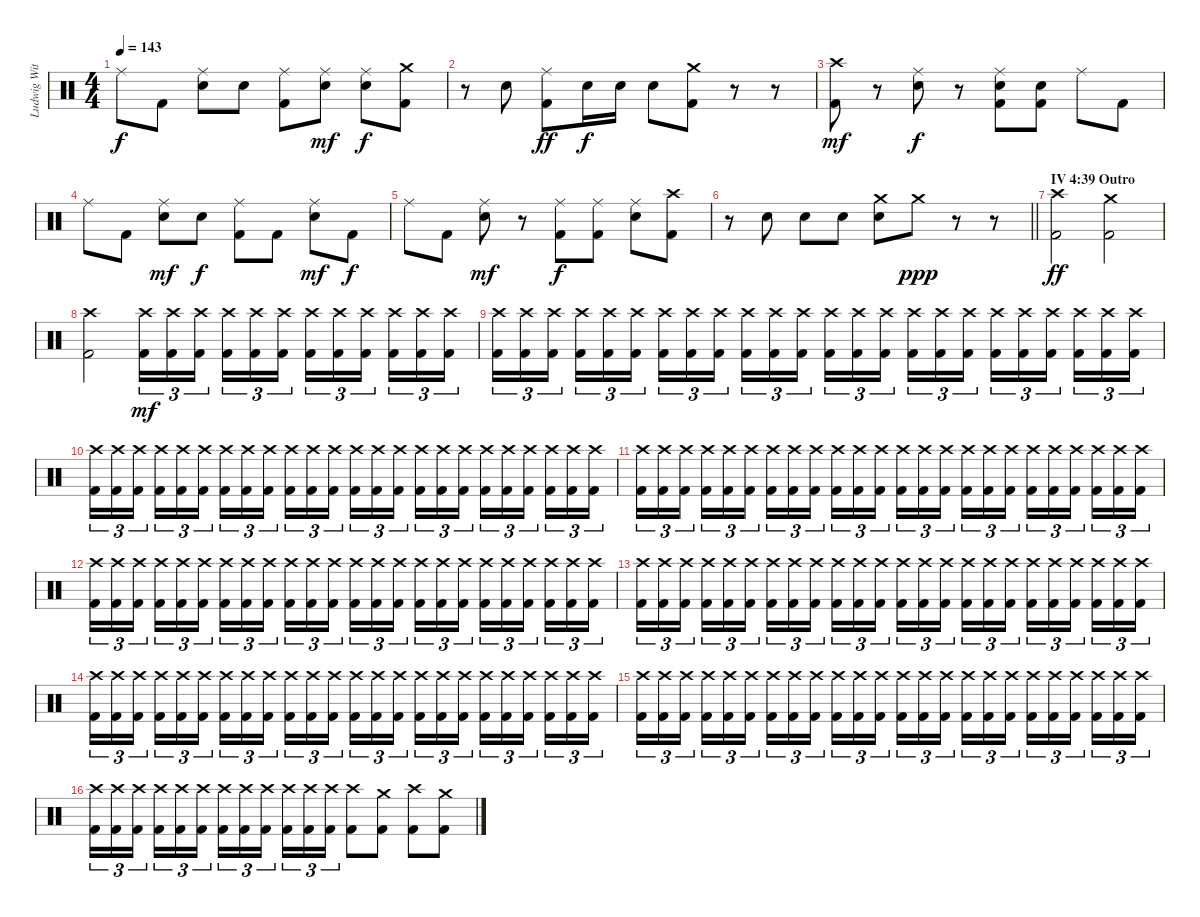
\track ("Ludwig Witt (Drums)" "Ludwig Wit") {instrument percussion}
\staff {score}
\articulation defaults
\ts (4 4)
\tempo 143
\clef neutral
\ks c "Ride (middle)".8{dy f} "Kick (hit) 2".8
("Ride (middle)" "Electric Snare (hit)").8 "Electric Snare (hit)".8 ("Ride (middle)" "Kick (hit) 2").8 ("Ride (middle)" "Electric Snare (hit)").8{dy mf} ("Ride (middle)" "Electric Snare (hit)").8{dy f} ("Crash medium (hit)" "Kick (hit) 2").8 |
r.8 "Electric Snare (hit)".8 ("Ride (middle)" "Kick (hit) 2").8{dy ff} "Electric Snare (hit)".16{dy f} "Electric Snare (hit)".16 "Electric Snare (hit)".8 ("Crash medium (hit)" "Kick (hit) 2").8 r.8 r.8 |
("Crash high (hit)" "Kick (hit) 2").8{dy mf} r.8 ("Ride (middle)" "Electric Snare (hit)").8{dy f} r.8 ("Ride (middle)" "Electric Snare (hit)" "Kick (hit) 2").8 ("Electric Snare (hit)" "Kick (hit) 2").8 "Ride (middle)".8 "Kick (hit) 2".8 |
"Ride (middle)".8 "Kick (hit) 2".8 ("Ride (middle)" "Electric Snare (hit)").8{dy mf} "Electric Snare (hit)".8{dy f} ("Ride (middle)" "Kick (hit) 2").8 "Kick (hit) 2".8 ("Ride (middle)" "Electric Snare (hit)").8{dy mf} "Kick (hit) 2".8{dy f} |
"Ride (middle)".8 "Kick (hit) 2".8 ("Ride (middle)" "Electric Snare (hit)").8{dy mf} r.8 ("Ride (middle)" "Kick (hit) 2").8{dy f} ("Ride (middle)" "Kick (hit) 2").8 ("Ride (middle)" "Electric Snare (hit)").8 ("Crash high (hit)" "Kick (hit) 2").8 |
\barLineRight lightlight
r.8 "Electric Snare (hit)".8 "Electric Snare (hit)".8 "Electric Snare (hit)".8 ("Crash medium (hit)" "Electric Snare (hit)").8 "Crash medium (hit)".8{dy ppp} r.8 r.8 |
\section ("" "IV 4:39 Outro")
("Crash high (hit)" "Kick (hit) 2").2{dy ff} ("Crash medium (hit)" "Kick (hit) 2").2 |
("Crash high (hit)" "Kick (hit) 2").2 ("Crash high (hit)" "Kick (hit) 2").16{tu (3 2) dy mf} ("Crash high (hit)" "Kick (hit) 2").16{tu (3 2)} ("Crash high (hit)" "Kick (hit) 2").16{tu (3 2) beam splitsecondary} ("Crash high (hit)" "Kick (hit) 2").16{tu (3 2)} ("Crash high (hit)" "Kick (hit) 2").16{tu (3 2)} ("Crash high (hit)" "Kick (hit) 2").16{tu (3 2)} ("Crash high (hit)" "Kick (hit) 2").16{tu (3 2)} ("Crash high (hit)" "Kick (hit) 2").16{tu (3 2)} ("Crash high (hit)" "Kick (hit) 2").16{tu (3 2) beam splitsecondary} ("Crash high (hit)" "Kick (hit) 2").16{tu (3 2)} ("Crash high (hit)" "Kick (hit) 2").16{tu (3 2)} ("Crash high (hit)" "Kick (hit) 2").16{tu (3 2)} |
("Crash high (hit)" "Kick (hit) 2").16{tu (3 2)} ("Crash high (hit)" "Kick (hit) 2").16{tu (3 2)} ("Crash high (hit)" "Kick (hit) 2").16{tu (3 2) beam splitsecondary} ("Crash high (hit)" "Kick (hit) 2").16{tu (3 2)} ("Crash high (hit)" "Kick (hit) 2").16{tu (3 2)} ("Crash high (hit)" "Kick (hit) 2").16{tu (3 2)} ("Crash high (hit)" "Kick (hit) 2").16{tu (3 2)} ("Crash high (hit)" "Kick (hit) 2").16{tu (3 2)} ("Crash high (hit)" "Kick (hit) 2").16{tu (3 2) beam splitsecondary} ("Crash high (hit)" "Kick (hit) 2").16{tu (3 2)} ("Crash high (hit)" "Kick (hit) 2").16{tu (3 2)} ("Crash high (hit)" "Kick (hit) 2").16{tu (3 2)} ("Crash high (hit)" "Kick (hit) 2").16{tu (3 2)} ("Crash high (hit)" "Kick (hit) 2").16{tu (3 2)} ("Crash high (hit)" "Kick (hit) 2").16{tu (3 2) beam splitsecondary} ("Crash high (hit)" "Kick (hit) 2").16{tu (3 2)} ("Crash high (hit)" "Kick (hit) 2").16{tu (3 2)} ("Crash high (hit)" "Kick (hit) 2").16{tu (3 2)} ("Crash high (hit)" "Kick (hit) 2").16{tu (3 2)} ("Crash high (hit)" "Kick (hit) 2").16{tu (3 2)} ("Crash high (hit)" "Kick (hit) 2").16{tu (3 2) beam splitsecondary} ("Crash high (hit)" "Kick (hit) 2").16{tu (3 2)} ("Crash high (hit)" "Kick (hit) 2").16{tu (3 2)} ("Crash high (hit)" "Kick (hit) 2").16{tu (3 2)} |
("Crash high (hit)" "Kick (hit) 2").16{tu (3 2)} ("Crash high (hit)" "Kick (hit) 2").16{tu (3 2)} ("Crash high (hit)" "Kick (hit) 2").16{tu (3 2) beam splitsecondary} ("Crash high (hit)" "Kick (hit) 2").16{tu (3 2)} ("Crash high (hit)" "Kick (hit) 2").16{tu (3 2)} ("Crash high (hit)" "Kick (hit) 2").16{tu (3 2)} ("Crash high (hit)" "Kick (hit) 2").16{tu (3 2)} ("Crash high (hit)" "Kick (hit) 2").16{tu (3 2)} ("Crash high (hit)" "Kick (hit) 2").16{tu (3 2) beam splitsecondary} ("Crash high (hit)" "Kick (hit) 2").16{tu (3 2)} ("Crash high (hit)" "Kick (hit) 2").16{tu (3 2)} ("Crash high (hit)" "Kick (hit) 2").16{tu (3 2)} ("Crash high (hit)" "Kick (hit) 2").16{tu (3 2)} ("Crash high (hit)" "Kick (hit) 2").16{tu (3 2)} ("Crash high (hit)" "Kick (hit) 2").16{tu (3 2) beam splitsecondary} ("Crash high (hit)" "Kick (hit) 2").16{tu (3 2)} ("Crash high (hit)" "Kick (hit) 2").16{tu (3 2)} ("Crash high (hit)" "Kick (hit) 2").16{tu (3 2)} ("Crash high (hit)" "Kick (hit) 2").16{tu (3 2)} ("Crash high (hit)" "Kick (hit) 2").16{tu (3 2)} ("Crash high (hit)" "Kick (hit) 2").16{tu (3 2) beam splitsecondary} ("Crash high (hit)" "Kick (hit) 2").16{tu (3 2)} ("Crash high (hit)" "Kick (hit) 2").16{tu (3 2)} ("Crash high (hit)" "Kick (hit) 2").16{tu (3 2)} |
("Crash high (hit)" "Kick (hit) 2").16{tu (3 2)} ("Crash high (hit)" "Kick (hit) 2").16{tu (3 2)} ("Crash high (hit)" "Kick (hit) 2").16{tu (3 2) beam splitsecondary} ("Crash high (hit)" "Kick (hit) 2").16{tu (3 2)} ("Crash high (hit)" "Kick (hit) 2").16{tu (3 2)} ("Crash high (hit)" "Kick (hit) 2").16{tu (3 2)} ("Crash high (hit)" "Kick (hit) 2").16{tu (3 2)} ("Crash high (hit)" "Kick (hit) 2").16{tu (3 2)} ("Crash high (hit)" "Kick (hit) 2").16{tu (3 2) beam splitsecondary} ("Crash high (hit)" "Kick (hit) 2").16{tu (3 2)} ("Crash high (hit)" "Kick (hit) 2").16{tu (3 2)} ("Crash high (hit)" "Kick (hit) 2").16{tu (3 2)} ("Crash high (hit)" "Kick (hit) 2").16{tu (3 2)} ("Crash high (hit)" "Kick (hit) 2").16{tu (3 2)} ("Crash high (hit)" "Kick (hit) 2").16{tu (3 2) beam splitsecondary} ("Crash high (hit)" "Kick (hit) 2").16{tu (3 2)} ("Crash high (hit)" "Kick (hit) 2").16{tu (3 2)} ("Crash high (hit)" "Kick (hit) 2").16{tu (3 2)} ("Crash high (hit)" "Kick (hit) 2").16{tu (3 2)} ("Crash high (hit)" "Kick (hit) 2").16{tu (3 2)} ("Crash high (hit)" "Kick (hit) 2").16{tu (3 2) beam splitsecondary} ("Crash high (hit)" "Kick (hit) 2").16{tu (3 2)} ("Crash high (hit)" "Kick (hit) 2").16{tu (3 2)} ("Crash high (hit)" "Kick (hit) 2").16{tu (3 2)} |
("Crash high (hit)" "Kick (hit) 2").16{tu (3 2)} ("Crash high (hit)" "Kick (hit) 2").16{tu (3 2)} ("Crash high (hit)" "Kick (hit) 2").16{tu (3 2) beam splitsecondary} ("Crash high (hit)" "Kick (hit) 2").16{tu (3 2)} ("Crash high (hit)" "Kick (hit) 2").16{tu (3 2)} ("Crash high (hit)" "Kick (hit) 2").16{tu (3 2)} ("Crash high (hit)" "Kick (hit) 2").16{tu (3 2)} ("Crash high (hit)" "Kick (hit) 2").16{tu (3 2)} ("Crash high (hit)" "Kick (hit) 2").16{tu (3 2) beam splitsecondary} ("Crash high (hit)" "Kick (hit) 2").16{tu (3 2)} ("Crash high (hit)" "Kick (hit) 2").16{tu (3 2)} ("Crash high (hit)" "Kick (hit) 2").16{tu (3 2)} ("Crash high (hit)" "Kick (hit) 2").16{tu (3 2)} ("Crash high (hit)" "Kick (hit) 2").16{tu (3 2)} ("Crash high (hit)" "Kick (hit) 2").16{tu (3 2) beam splitsecondary} ("Crash high (hit)" "Kick (hit) 2").16{tu (3 2)} ("Crash high (hit)" "Kick (hit) 2").16{tu (3 2)} ("Crash high (hit)" "Kick (hit) 2").16{tu (3 2)} ("Crash high (hit)" "Kick (hit) 2").16{tu (3 2)} ("Crash high (hit)" "Kick (hit) 2").16{tu (3 2)} ("Crash high (hit)" "Kick (hit) 2").16{tu (3 2) beam splitsecondary} ("Crash high (hit)" "Kick (hit) 2").16{tu (3 2)} ("Crash high (hit)" "Kick (hit) 2").16{tu (3 2)} ("Crash high (hit)" "Kick (hit) 2").16{tu (3 2)} |
("Crash high (hit)" "Kick (hit) 2").16{tu (3 2)} ("Crash high (hit)" "Kick (hit) 2").16{tu (3 2)} ("Crash high (hit)" "Kick (hit) 2").16{tu (3 2) beam splitsecondary} ("Crash high (hit)" "Kick (hit) 2").16{tu (3 2)} ("Crash high (hit)" "Kick (hit) 2").16{tu (3 2)} ("Crash high (hit)" "Kick (hit) 2").16{tu (3 2)} ("Crash high (hit)" "Kick (hit) 2").16{tu (3 2)} ("Crash high (hit)" "Kick (hit) 2").16{tu (3 2)} ("Crash high (hit)" "Kick (hit) 2").16{tu (3 2) beam splitsecondary} ("Crash high (hit)" "Kick (hit) 2").16{tu (3 2)} ("Crash high (hit)" "Kick (hit) 2").16{tu (3 2)} ("Crash high (hit)" "Kick (hit) 2").16{tu (3 2)} ("Crash high (hit)" "Kick (hit) 2").16{tu (3 2)} ("Crash high (hit)" "Kick (hit) 2").16{tu (3 2)} ("Crash high (hit)" "Kick (hit) 2").16{tu (3 2) beam splitsecondary} ("Crash high (hit)" "Kick (hit) 2").16{tu (3 2)} ("Crash high (hit)" "Kick (hit) 2").16{tu (3 2)} ("Crash high (hit)" "Kick (hit) 2").16{tu (3 2)} ("Crash high (hit)" "Kick (hit) 2").16{tu (3 2)} ("Crash high (hit)" "Kick (hit) 2").16{tu (3 2)} ("Crash high (hit)" "Kick (hit) 2").16{tu (3 2) beam splitsecondary} ("Crash high (hit)" "Kick (hit) 2").16{tu (3 2)} ("Crash high (hit)" "Kick (hit) 2").16{tu (3 2)} ("Crash high (hit)" "Kick (hit) 2").16{tu (3 2)} |
("Crash high (hit)" "Kick (hit) 2").16{tu (3 2)} ("Crash high (hit)" "Kick (hit) 2").16{tu (3 2)} ("Crash high (hit)" "Kick (hit) 2").16{tu (3 2) beam splitsecondary} ("Crash high (hit)" "Kick (hit) 2").16{tu (3 2)} ("Crash high (hit)" "Kick (hit) 2").16{tu (3 2)} ("Crash high (hit)" "Kick (hit) 2").16{tu (3 2)} ("Crash high (hit)" "Kick (hit) 2").16{tu (3 2)} ("Crash high (hit)" "Kick (hit) 2").16{tu (3 2)} ("Crash high (hit)" "Kick (hit) 2").16{tu (3 2) beam splitsecondary} ("Crash high (hit)" "Kick (hit) 2").16{tu (3 2)} ("Crash high (hit)" "Kick (hit) 2").16{tu (3 2)} ("Crash high (hit)" "Kick (hit) 2").16{tu (3 2)} ("Crash high (hit)" "Kick (hit) 2").16{tu (3 2)} ("Crash high (hit)" "Kick (hit) 2").16{tu (3 2)} ("Crash high (hit)" "Kick (hit) 2").16{tu (3 2) beam splitsecondary} ("Crash high (hit)" "Kick (hit) 2").16{tu (3 2)} ("Crash high (hit)" "Kick (hit) 2").16{tu (3 2)} ("Crash high (hit)" "Kick (hit) 2").16{tu (3 2)} ("Crash high (hit)" "Kick (hit) 2").16{tu (3 2)} ("Crash high (hit)" "Kick (hit) 2").16{tu (3 2)} ("Crash high (hit)" "Kick (hit) 2").16{tu (3 2) beam splitsecondary} ("Crash high (hit)" "Kick (hit) 2").16{tu (3 2)} ("Crash high (hit)" "Kick (hit) 2").16{tu (3 2)} ("Crash high (hit)" "Kick (hit) 2").16{tu (3 2)} |
("Crash high (hit)" "Kick (hit) 2").16{tu (3 2)} ("Crash high (hit)" "Kick (hit) 2").16{tu (3 2)} ("Crash high (hit)" "Kick (hit) 2").16{tu (3 2) beam splitsecondary} ("Crash high (hit)" "Kick (hit) 2").16{tu (3 2)} ("Crash high (hit)" "Kick (hit) 2").16{tu (3 2)} ("Crash high (hit)" "Kick (hit) 2").16{tu (3 2)} ("Crash high (hit)" "Kick (hit) 2").16{tu (3 2)} ("Crash high (hit)" "Kick (hit) 2").16{tu (3 2)} ("Crash high (hit)" "Kick (hit) 2").16{tu (3 2) beam splitsecondary} ("Crash high (hit)" "Kick (hit) 2").16{tu (3 2)} ("Crash high (hit)" "Kick (hit) 2").16{tu (3 2)} ("Crash high (hit)" "Kick (hit) 2").16{tu (3 2)} ("Crash high (hit)" "Kick (hit) 2").16{tu (3 2)} ("Crash high (hit)" "Kick (hit) 2").16{tu (3 2)} ("Crash high (hit)" "Kick (hit) 2").16{tu (3 2) beam splitsecondary} ("Crash high (hit)" "Kick (hit) 2").16{tu (3 2)} ("Crash high (hit)" "Kick (hit) 2").16{tu (3 2)} ("Crash high (hit)" "Kick (hit) 2").16{tu (3 2)} ("Crash high (hit)" "Kick (hit) 2").16{tu (3 2)} ("Crash high (hit)" "Kick (hit) 2").16{tu (3 2)} ("Crash high (hit)" "Kick (hit) 2").16{tu (3 2) beam splitsecondary} ("Crash high (hit)" "Kick (hit) 2").16{tu (3 2)} ("Crash high (hit)" "Kick (hit) 2").16{tu (3 2)} ("Crash high (hit)" "Kick (hit) 2").16{tu (3 2)} |
("Crash high (hit)" "Kick (hit) 2").16{tu (3 2)} ("Crash high (hit)" "Kick (hit) 2").16{tu (3 2)} ("Crash high (hit)" "Kick (hit) 2").16{tu (3 2) beam splitsecondary} ("Crash high (hit)" "Kick (hit) 2").16{tu (3 2)} ("Crash high (hit)" "Kick (hit) 2").16{tu (3 2)} ("Crash high (hit)" "Kick (hit) 2").16{tu (3 2)} ("Crash high (hit)" "Kick (hit) 2").16{tu (3 2)} ("Crash high (hit)" "Kick (hit) 2").16{tu (3 2)} ("Crash high (hit)" "Kick (hit) 2").16{tu (3 2) beam splitsecondary} ("Crash high (hit)" "Kick (hit) 2").16{tu (3 2)} ("Crash high (hit)" "Kick (hit) 2").16{tu (3 2)} ("Crash high (hit)" "Kick (hit) 2").16{tu (3 2)} ("Crash high (hit)" "Kick (hit) 2").8 ("Crash medium (hit)" "Kick (hit) 2").8 ("Crash high (hit)" "Kick (hit) 2").8 ("Crash medium (hit)" "Kick (hit) 2").8
